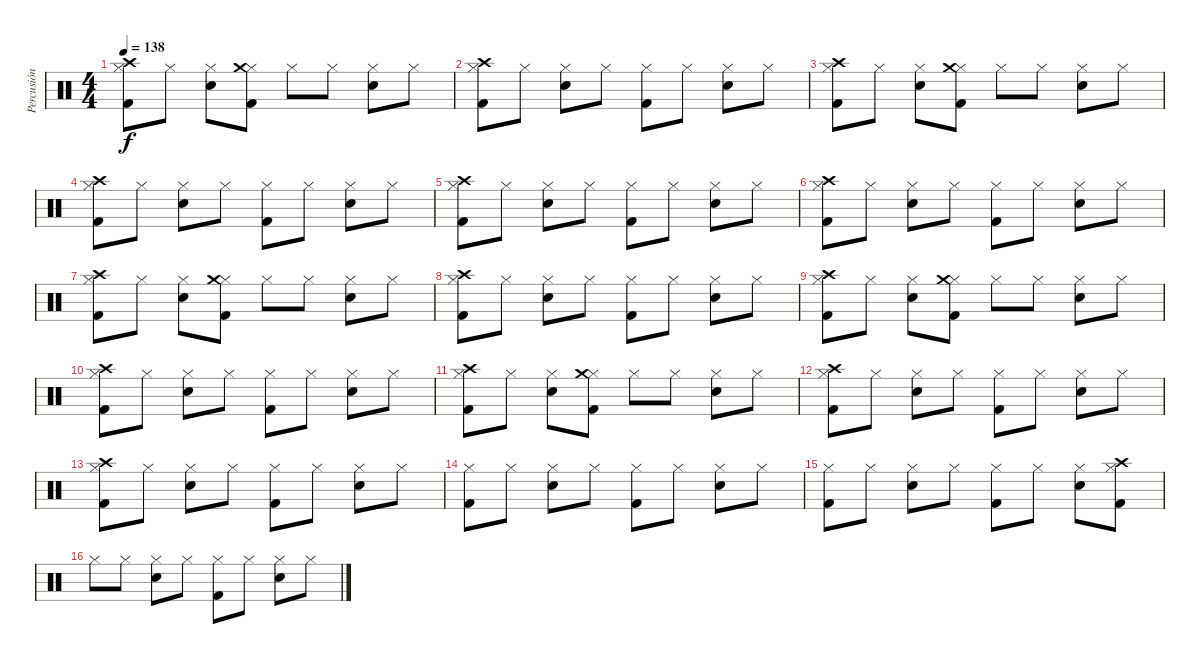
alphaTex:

\track ("Percusión" "Percusión") {instrument percussion bank 10}
\staff {score}
\articulation defaults
\ts (4 4)
\tempo 138
\clef neutral
\ks c
("Hi-Hat (closed)" "Crash high (hit)" "Kick (hit) 2").8{dy f} "Hi-Hat (closed)".8 ("Hi-Hat (closed)" "Snare (hit) 2").8 ("Hi-Hat (closed)" "Crash medium (hit)" "Kick (hit) 2").8 "Hi-Hat (closed)".8 "Hi-Hat (closed)".8 ("Hi-Hat (closed)" "Snare (hit) 2").8 "Hi-Hat (closed)".8 |
("Hi-Hat (closed)" "Crash high (hit)" "Kick (hit) 2").8 "Hi-Hat (closed)".8 ("Hi-Hat (closed)" "Snare (hit) 2").8 "Hi-Hat (closed)".8 ("Hi-Hat (closed)" "Kick (hit) 2").8 "Hi-Hat (closed)".8 ("Hi-Hat (closed)" "Snare (hit) 2").8 "Hi-Hat (closed)".8 |
("Hi-Hat (closed)" "Crash high (hit)" "Kick (hit) 2").8 "Hi-Hat (closed)".8 ("Hi-Hat (closed)" "Snare (hit) 2").8 ("Hi-Hat (closed)" "Crash medium (hit)" "Kick (hit) 2").8 "Hi-Hat (closed)".8 "Hi-Hat (closed)".8 ("Hi-Hat (closed)" "Snare (hit) 2").8 "Hi-Hat (closed)".8 |
("Hi-Hat (closed)" "Crash high (hit)" "Kick (hit) 2").8 "Hi-Hat (closed)".8 ("Hi-Hat (closed)" "Snare (hit) 2").8 "Hi-Hat (closed)".8 ("Hi-Hat (closed)" "Kick (hit) 2").8 "Hi-Hat (closed)".8 ("Hi-Hat (closed)" "Snare (hit) 2").8 "Hi-Hat (closed)".8 |
("Hi-Hat (closed)" "Crash high (hit)" "Kick (hit) 2").8 "Hi-Hat (closed)".8 ("Hi-Hat (closed)" "Snare (hit) 2").8 "Hi-Hat (closed)".8 ("Hi-Hat (closed)" "Kick (hit) 2").8 "Hi-Hat (closed)".8 ("Hi-Hat (closed)" "Snare (hit) 2").8 "Hi-Hat (closed)".8 |
("Hi-Hat (closed)" "Crash high (hit)" "Kick (hit) 2").8 "Hi-Hat (closed)".8 ("Hi-Hat (closed)" "Snare (hit) 2").8 "Hi-Hat (closed)".8 ("Hi-Hat (closed)" "Kick (hit) 2").8 "Hi-Hat (closed)".8 ("Hi-Hat (closed)" "Snare (hit) 2").8 "Hi-Hat (closed)".8 |
("Hi-Hat (closed)" "Crash high (hit)" "Kick (hit) 2").8 "Hi-Hat (closed)".8 ("Hi-Hat (closed)" "Snare (hit) 2").8 ("Hi-Hat (closed)" "Crash medium (hit)" "Kick (hit) 2").8 "Hi-Hat (closed)".8 "Hi-Hat (closed)".8 ("Hi-Hat (closed)" "Snare (hit) 2").8 "Hi-Hat (closed)".8 |
("Hi-Hat (closed)" "Crash high (hit)" "Kick (hit) 2").8 "Hi-Hat (closed)".8 ("Hi-Hat (closed)" "Snare (hit) 2").8 "Hi-Hat (closed)".8 ("Hi-Hat (closed)" "Kick (hit) 2").8 "Hi-Hat (closed)".8 ("Hi-Hat (closed)" "Snare (hit) 2").8 "Hi-Hat (closed)".8 |
("Hi-Hat (closed)" "Crash high (hit)" "Kick (hit) 2").8 "Hi-Hat (closed)".8 ("Hi-Hat (closed)" "Snare (hit) 2").8 ("Hi-Hat (closed)" "Crash medium (hit)" "Kick (hit) 2").8 "Hi-Hat (closed)".8 "Hi-Hat (closed)".8 ("Hi-Hat (closed)" "Snare (hit) 2").8 "Hi-Hat (closed)".8 |
("Hi-Hat (closed)" "Crash high (hit)" "Kick (hit) 2").8 "Hi-Hat (closed)".8 ("Hi-Hat (closed)" "Snare (hit) 2").8 "Hi-Hat (closed)".8 ("Hi-Hat (closed)" "Kick (hit) 2").8 "Hi-Hat (closed)".8 ("Hi-Hat (closed)" "Snare (hit) 2").8 "Hi-Hat (closed)".8 |
("Hi-Hat (closed)" "Crash high (hit)" "Kick (hit) 2").8 "Hi-Hat (closed)".8 ("Hi-Hat (closed)" "Snare (hit) 2").8 ("Hi-Hat (closed)" "Crash medium (hit)" "Kick (hit) 2").8 "Hi-Hat (closed)".8 "Hi-Hat (closed)".8 ("Hi-Hat (closed)" "Snare (hit) 2").8 "Hi-Hat (closed)".8 |
("Hi-Hat (closed)" "Crash high (hit)" "Kick (hit) 2").8 "Hi-Hat (closed)".8 ("Hi-Hat (closed)" "Snare (hit) 2").8 "Hi-Hat (closed)".8 ("Hi-Hat (closed)" "Kick (hit) 2").8 "Hi-Hat (closed)".8 ("Hi-Hat (closed)" "Snare (hit) 2").8 "Hi-Hat (closed)".8 |
("Hi-Hat (closed)" "Crash high (hit)" "Kick (hit) 2").8 "Hi-Hat (closed)".8 ("Hi-Hat (closed)" "Snare (hit) 2").8 "Hi-Hat (closed)".8 ("Hi-Hat (closed)" "Kick (hit) 2").8 "Hi-Hat (closed)".8 ("Hi-Hat (closed)" "Snare (hit) 2").8 "Hi-Hat (closed)".8 |
("Hi-Hat (closed)" "Kick (hit) 2").8 "Hi-Hat (closed)".8 ("Hi-Hat (closed)" "Snare (hit) 2").8 "Hi-Hat (closed)".8 ("Hi-Hat (closed)" "Kick (hit) 2").8 "Hi-Hat (closed)".8 ("Hi-Hat (closed)" "Snare (hit) 2").8 "Hi-Hat (closed)".8 |
("Hi-Hat (closed)" "Kick (hit) 2").8 "Hi-Hat (closed)".8 ("Hi-Hat (closed)" "Snare (hit) 2").8 "Hi-Hat (closed)".8 ("Hi-Hat (closed)" "Kick (hit) 2").8 "Hi-Hat (closed)".8 ("Hi-Hat (closed)" "Snare (hit) 2").8 ("Hi-Hat (closed)" "Crash high (hit)" "Kick (hit) 2").8 |
"Hi-Hat (closed)".8 "Hi-Hat (closed)".8 ("Hi-Hat (closed)" "Snare (hit) 2").8 "Hi-Hat (closed)".8 ("Hi-Hat (closed)" "Kick (hit) 2").8 "Hi-Hat (closed)".8 ("Hi-Hat (closed)" "Snare (hit) 2").8 "Hi-Hat (closed)".8
